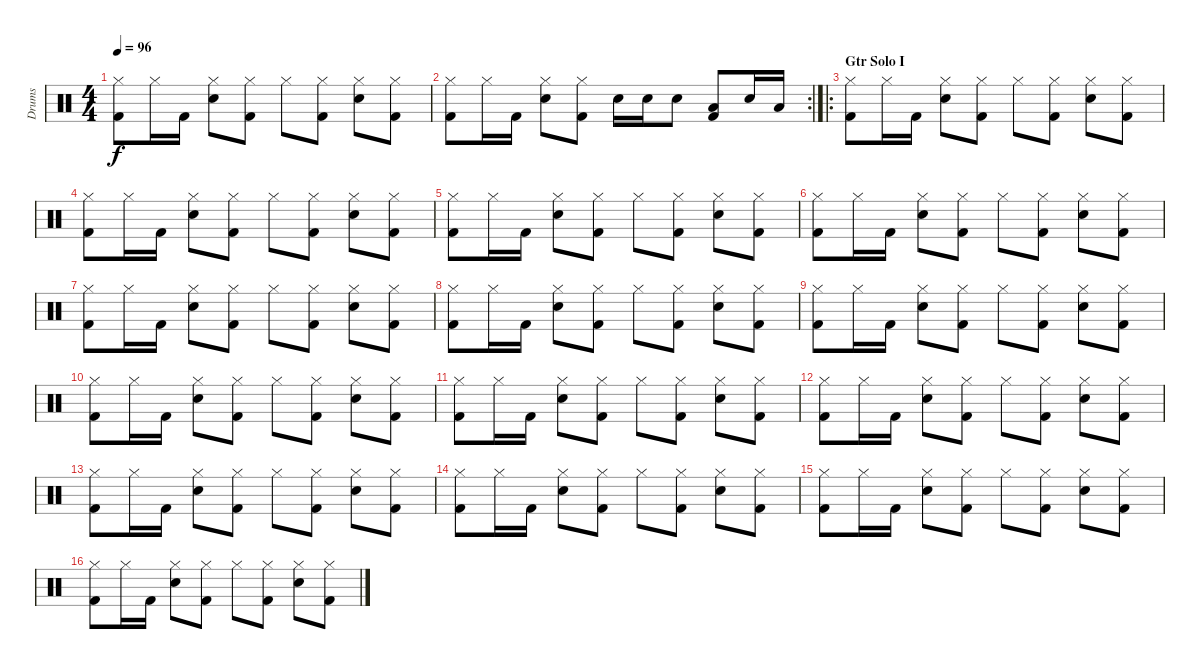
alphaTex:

\track ("Drums" "Drums") {instrument percussion}
\staff {score}
\articulation defaults
\ts (4 4)
\tempo 96
\clef neutral
\ks c
("Hi-Hat (closed)" "Kick (hit) 2").8{dy f} "Hi-Hat (closed)".16 "Kick (hit) 2".16 ("Hi-Hat (closed)" "Snare (hit) 2").8 ("Hi-Hat (closed)" "Kick (hit) 2").8 "Hi-Hat (closed)".8 ("Hi-Hat (closed)" "Kick (hit) 2").8 ("Hi-Hat (closed)" "Snare (hit) 2").8 ("Hi-Hat (closed)" "Kick (hit) 2").8 |
\rc 2
("Hi-Hat (closed)" "Kick (hit) 2").8 "Hi-Hat (closed)".16 "Kick (hit) 2".16 ("Hi-Hat (closed)" "Snare (hit) 2").8 ("Hi-Hat (closed)" "Kick (hit) 2").8 "Snare (hit) 2".16 "Snare (hit) 2".16 "Snare (hit) 2".8 ("Low Tom (hit)" "Kick (hit) 2").8 "Snare (hit) 2".16 "Low Tom (hit)".16 |
\ro
\section ("" "Gtr Solo I")
("Hi-Hat (closed)" "Kick (hit) 2").8 "Hi-Hat (closed)".16 "Kick (hit) 2".16 ("Hi-Hat (closed)" "Snare (hit) 2").8 ("Hi-Hat (closed)" "Kick (hit) 2").8 "Hi-Hat (closed)".8 ("Hi-Hat (closed)" "Kick (hit) 2").8 ("Hi-Hat (closed)" "Snare (hit) 2").8 ("Hi-Hat (closed)" "Kick (hit) 2").8 |
("Hi-Hat (closed)" "Kick (hit) 2").8 "Hi-Hat (closed)".16 "Kick (hit) 2".16 ("Hi-Hat (closed)" "Snare (hit) 2").8 ("Hi-Hat (closed)" "Kick (hit) 2").8 "Hi-Hat (closed)".8 ("Hi-Hat (closed)" "Kick (hit) 2").8 ("Hi-Hat (closed)" "Snare (hit) 2").8 ("Hi-Hat (closed)" "Kick (hit) 2").8 |
("Hi-Hat (closed)" "Kick (hit) 2").8 "Hi-Hat (closed)".16 "Kick (hit) 2".16 ("Hi-Hat (closed)" "Snare (hit) 2").8 ("Hi-Hat (closed)" "Kick (hit) 2").8 "Hi-Hat (closed)".8 ("Hi-Hat (closed)" "Kick (hit) 2").8 ("Hi-Hat (closed)" "Snare (hit) 2").8 ("Hi-Hat (closed)" "Kick (hit) 2").8 |
("Hi-Hat (closed)" "Kick (hit) 2").8 "Hi-Hat (closed)".16 "Kick (hit) 2".16 ("Hi-Hat (closed)" "Snare (hit) 2").8 ("Hi-Hat (closed)" "Kick (hit) 2").8 "Hi-Hat (closed)".8 ("Hi-Hat (closed)" "Kick (hit) 2").8 ("Hi-Hat (closed)" "Snare (hit) 2").8 ("Hi-Hat (closed)" "Kick (hit) 2").8 |
("Hi-Hat (closed)" "Kick (hit) 2").8 "Hi-Hat (closed)".16 "Kick (hit) 2".16 ("Hi-Hat (closed)" "Snare (hit) 2").8 ("Hi-Hat (closed)" "Kick (hit) 2").8 "Hi-Hat (closed)".8 ("Hi-Hat (closed)" "Kick (hit) 2").8 ("Hi-Hat (closed)" "Snare (hit) 2").8 ("Hi-Hat (closed)" "Kick (hit) 2").8 |
("Hi-Hat (closed)" "Kick (hit) 2").8 "Hi-Hat (closed)".16 "Kick (hit) 2".16 ("Hi-Hat (closed)" "Snare (hit) 2").8 ("Hi-Hat (closed)" "Kick (hit) 2").8 "Hi-Hat (closed)".8 ("Hi-Hat (closed)" "Kick (hit) 2").8 ("Hi-Hat (closed)" "Snare (hit) 2").8 ("Hi-Hat (closed)" "Kick (hit) 2").8 |
("Hi-Hat (closed)" "Kick (hit) 2").8 "Hi-Hat (closed)".16 "Kick (hit) 2".16 ("Hi-Hat (closed)" "Snare (hit) 2").8 ("Hi-Hat (closed)" "Kick (hit) 2").8 "Hi-Hat (closed)".8 ("Hi-Hat (closed)" "Kick (hit) 2").8 ("Hi-Hat (closed)" "Snare (hit) 2").8 ("Hi-Hat (closed)" "Kick (hit) 2").8 |
("Hi-Hat (closed)" "Kick (hit) 2").8 "Hi-Hat (closed)".16 "Kick (hit) 2".16 ("Hi-Hat (closed)" "Snare (hit) 2").8 ("Hi-Hat (closed)" "Kick (hit) 2").8 "Hi-Hat (closed)".8 ("Hi-Hat (closed)" "Kick (hit) 2").8 ("Hi-Hat (closed)" "Snare (hit) 2").8 ("Hi-Hat (closed)" "Kick (hit) 2").8 |
("Hi-Hat (closed)" "Kick (hit) 2").8 "Hi-Hat (closed)".16 "Kick (hit) 2".16 ("Hi-Hat (closed)" "Snare (hit) 2").8 ("Hi-Hat (closed)" "Kick (hit) 2").8 "Hi-Hat (closed)".8 ("Hi-Hat (closed)" "Kick (hit) 2").8 ("Hi-Hat (closed)" "Snare (hit) 2").8 ("Hi-Hat (closed)" "Kick (hit) 2").8 |
("Hi-Hat (closed)" "Kick (hit) 2").8 "Hi-Hat (closed)".16 "Kick (hit) 2".16 ("Hi-Hat (closed)" "Snare (hit) 2").8 ("Hi-Hat (closed)" "Kick (hit) 2").8 "Hi-Hat (closed)".8 ("Hi-Hat (closed)" "Kick (hit) 2").8 ("Hi-Hat (closed)" "Snare (hit) 2").8 ("Hi-Hat (closed)" "Kick (hit) 2").8 |
("Hi-Hat (closed)" "Kick (hit) 2").8 "Hi-Hat (closed)".16 "Kick (hit) 2".16 ("Hi-Hat (closed)" "Snare (hit) 2").8 ("Hi-Hat (closed)" "Kick (hit) 2").8 "Hi-Hat (closed)".8 ("Hi-Hat (closed)" "Kick (hit) 2").8 ("Hi-Hat (closed)" "Snare (hit) 2").8 ("Hi-Hat (closed)" "Kick (hit) 2").8 |
("Hi-Hat (closed)" "Kick (hit) 2").8 "Hi-Hat (closed)".16 "Kick (hit) 2".16 ("Hi-Hat (closed)" "Snare (hit) 2").8 ("Hi-Hat (closed)" "Kick (hit) 2").8 "Hi-Hat (closed)".8 ("Hi-Hat (closed)" "Kick (hit) 2").8 ("Hi-Hat (closed)" "Snare (hit) 2").8 ("Hi-Hat (closed)" "Kick (hit) 2").8 |
("Hi-Hat (closed)" "Kick (hit) 2").8 "Hi-Hat (closed)".16 "Kick (hit) 2".16 ("Hi-Hat (closed)" "Snare (hit) 2").8 ("Hi-Hat (closed)" "Kick (hit) 2").8 "Hi-Hat (closed)".8 ("Hi-Hat (closed)" "Kick (hit) 2").8 ("Hi-Hat (closed)" "Snare (hit) 2").8 ("Hi-Hat (closed)" "Kick (hit) 2").8 |
("Hi-Hat (closed)" "Kick (hit) 2").8 "Hi-Hat (closed)".16 "Kick (hit) 2".16 ("Hi-Hat (closed)" "Snare (hit) 2").8 ("Hi-Hat (closed)" "Kick (hit) 2").8 "Hi-Hat (closed)".8 ("Hi-Hat (closed)" "Kick (hit) 2").8 ("Hi-Hat (closed)" "Snare (hit) 2").8 ("Hi-Hat (closed)" "Kick (hit) 2").8
